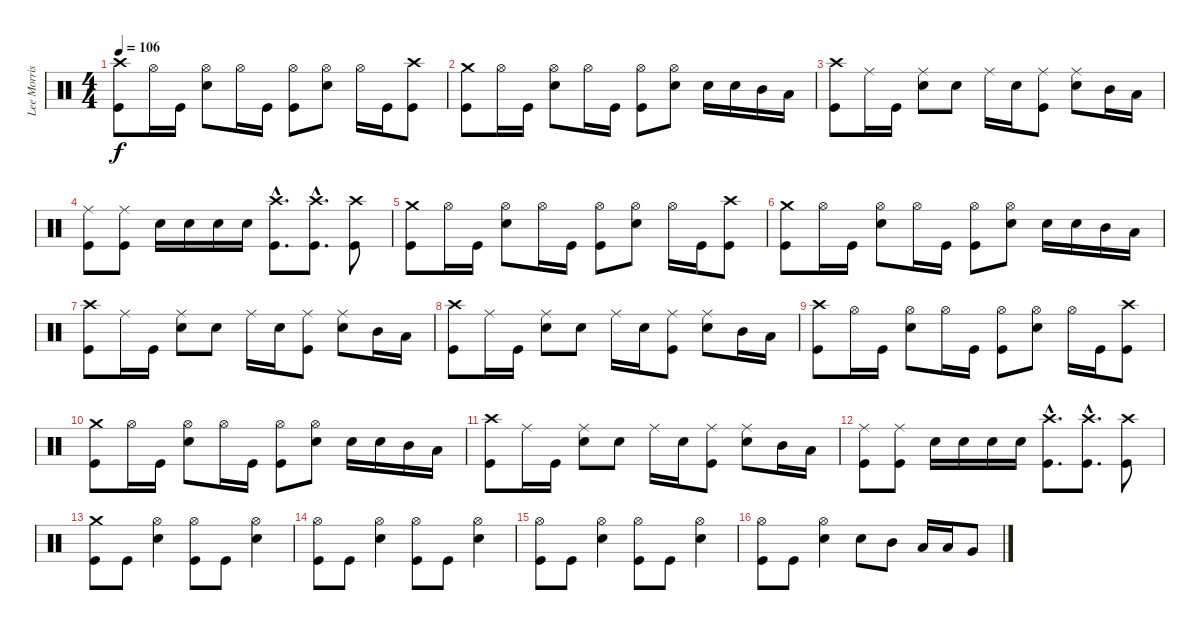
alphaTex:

\track ("Lee Morris" "Lee Morris") {instrument percussion}
\staff {score}
\articulation defaults
\ts (4 4)
\tempo 106
\clef neutral
\ks c
("Kick (hit)" "Crash high (hit)").8{dy f} "Hi-Hat (open)".16 "Kick (hit)".16 ("Snare (hit) 2" "Hi-Hat (open)").8 "Hi-Hat (open)".16 "Kick (hit)".16 ("Kick (hit)" "Hi-Hat (open)").8 ("Snare (hit) 2" "Hi-Hat (open)").8 "Hi-Hat (open)".16 "Kick (hit)".16 ("Kick (hit)" "Crash high (hit)").8 |
("Kick (hit)" "Crash medium (hit)").8 "Hi-Hat (open)".16 "Kick (hit)".16 ("Snare (hit) 2" "Hi-Hat (open)").8 "Hi-Hat (open)".16 "Kick (hit)".16 ("Kick (hit)" "Hi-Hat (open)").8 ("Snare (hit) 2" "Hi-Hat (open)").8 "Snare (hit) 2".16 "Snare (hit) 2".16 "Mid Tom (hit)".16 "Low Tom (hit)".16 |
("Kick (hit)" "Crash high (hit)").8 "Ride (middle)".16 "Kick (hit)".16 ("Snare (hit) 2" "Ride (middle)").8 "Snare (hit) 2".8 "Ride (middle)".16 "Snare (hit) 2".16 ("Kick (hit)" "Ride (middle)").8 ("Snare (hit) 2" "Ride (middle)").8 "Mid Tom (hit)".16 "Low Tom (hit)".16 |
("Kick (hit)" "Ride (middle)").8 ("Kick (hit)" "Ride (middle)").8 "Snare (hit) 2".16 "Snare (hit) 2".16 "Snare (hit) 2".16 "Snare (hit) 2".16 ("Kick (hit)"{hac} "Crash high (hit)"{hac}).8{d} ("Kick (hit)"{hac} "Crash high (hit)"{hac}).8{d} ("Kick (hit)" "Crash high (hit)").8 |
("Kick (hit)" "Crash medium (hit)").8 "Hi-Hat (open)".16 "Kick (hit)".16 ("Snare (hit) 2" "Hi-Hat (open)").8 "Hi-Hat (open)".16 "Kick (hit)".16 ("Kick (hit)" "Hi-Hat (open)").8 ("Snare (hit) 2" "Hi-Hat (open)").8 "Hi-Hat (open)".16 "Kick (hit)".16 ("Kick (hit)" "Crash high (hit)").8 |
("Kick (hit)" "Crash medium (hit)").8 "Hi-Hat (open)".16 "Kick (hit)".16 ("Snare (hit) 2" "Hi-Hat (open)").8 "Hi-Hat (open)".16 "Kick (hit)".16 ("Kick (hit)" "Hi-Hat (open)").8 ("Snare (hit) 2" "Hi-Hat (open)").8 "Snare (hit) 2".16 "Snare (hit) 2".16 "Mid Tom (hit)".16 "Low Tom (hit)".16 |
("Kick (hit)" "Crash high (hit)").8 "Ride (middle)".16 "Kick (hit)".16 ("Snare (hit) 2" "Ride (middle)").8 "Snare (hit) 2".8 "Ride (middle)".16 "Snare (hit) 2".16 ("Kick (hit)" "Ride (middle)").8 ("Snare (hit) 2" "Ride (middle)").8 "Mid Tom (hit)".16 "Low Tom (hit)".16 |
("Kick (hit)" "Crash high (hit)").8 "Ride (middle)".16 "Kick (hit)".16 ("Snare (hit) 2" "Ride (middle)").8 "Snare (hit) 2".8 "Ride (middle)".16 "Snare (hit) 2".16 ("Kick (hit)" "Ride (middle)").8 ("Snare (hit) 2" "Ride (middle)").8 "Mid Tom (hit)".16 "Low Tom (hit)".16 |
("Kick (hit)" "Crash high (hit)").8 "Hi-Hat (open)".16 "Kick (hit)".16 ("Snare (hit) 2" "Hi-Hat (open)").8 "Hi-Hat (open)".16 "Kick (hit)".16 ("Kick (hit)" "Hi-Hat (open)").8 ("Snare (hit) 2" "Hi-Hat (open)").8 "Hi-Hat (open)".16 "Kick (hit)".16 ("Kick (hit)" "Crash high (hit)").8 |
("Kick (hit)" "Crash medium (hit)").8 "Hi-Hat (open)".16 "Kick (hit)".16 ("Snare (hit) 2" "Hi-Hat (open)").8 "Hi-Hat (open)".16 "Kick (hit)".16 ("Kick (hit)" "Hi-Hat (open)").8 ("Snare (hit) 2" "Hi-Hat (open)").8 "Snare (hit) 2".16 "Snare (hit) 2".16 "Mid Tom (hit)".16 "Low Tom (hit)".16 |
("Kick (hit)" "Crash high (hit)").8 "Ride (middle)".16 "Kick (hit)".16 ("Snare (hit) 2" "Ride (middle)").8 "Snare (hit) 2".8 "Ride (middle)".16 "Snare (hit) 2".16 ("Kick (hit)" "Ride (middle)").8 ("Snare (hit) 2" "Ride (middle)").8 "Mid Tom (hit)".16 "Low Tom (hit)".16 |
("Kick (hit)" "Ride (middle)").8 ("Kick (hit)" "Ride (middle)").8 "Snare (hit) 2".16 "Snare (hit) 2".16 "Snare (hit) 2".16 "Snare (hit) 2".16 ("Kick (hit)"{hac} "Crash high (hit)"{hac}).8{d} ("Kick (hit)"{hac} "Crash high (hit)"{hac}).8{d} ("Kick (hit)" "Crash high (hit)").8 |
("Kick (hit)" "Crash medium (hit)").8 "Kick (hit)".8 ("Snare (hit) 2" "Hi-Hat (open)").4 ("Kick (hit)" "Hi-Hat (open)").8 "Kick (hit)".8 ("Snare (hit) 2" "Hi-Hat (open)").4 |
("Kick (hit)" "Hi-Hat (open)").8 "Kick (hit)".8 ("Snare (hit) 2" "Hi-Hat (open)").4 ("Kick (hit)" "Hi-Hat (open)").8 "Kick (hit)".8 ("Snare (hit) 2" "Hi-Hat (open)").4 |
("Kick (hit)" "Hi-Hat (open)").8 "Kick (hit)".8 ("Snare (hit) 2" "Hi-Hat (open)").4 ("Kick (hit)" "Hi-Hat (open)").8 "Kick (hit)".8 ("Snare (hit) 2" "Hi-Hat (open)").4 |
("Kick (hit)" "Hi-Hat (open)").8 "Kick (hit)".8 ("Snare (hit) 2" "Hi-Hat (open)").4 "Snare (hit) 2".8 "Mid Tom (hit)".8 "Low Tom (hit)".16 "Low Tom (hit)".16 "Very Low Tom (hit)".8
